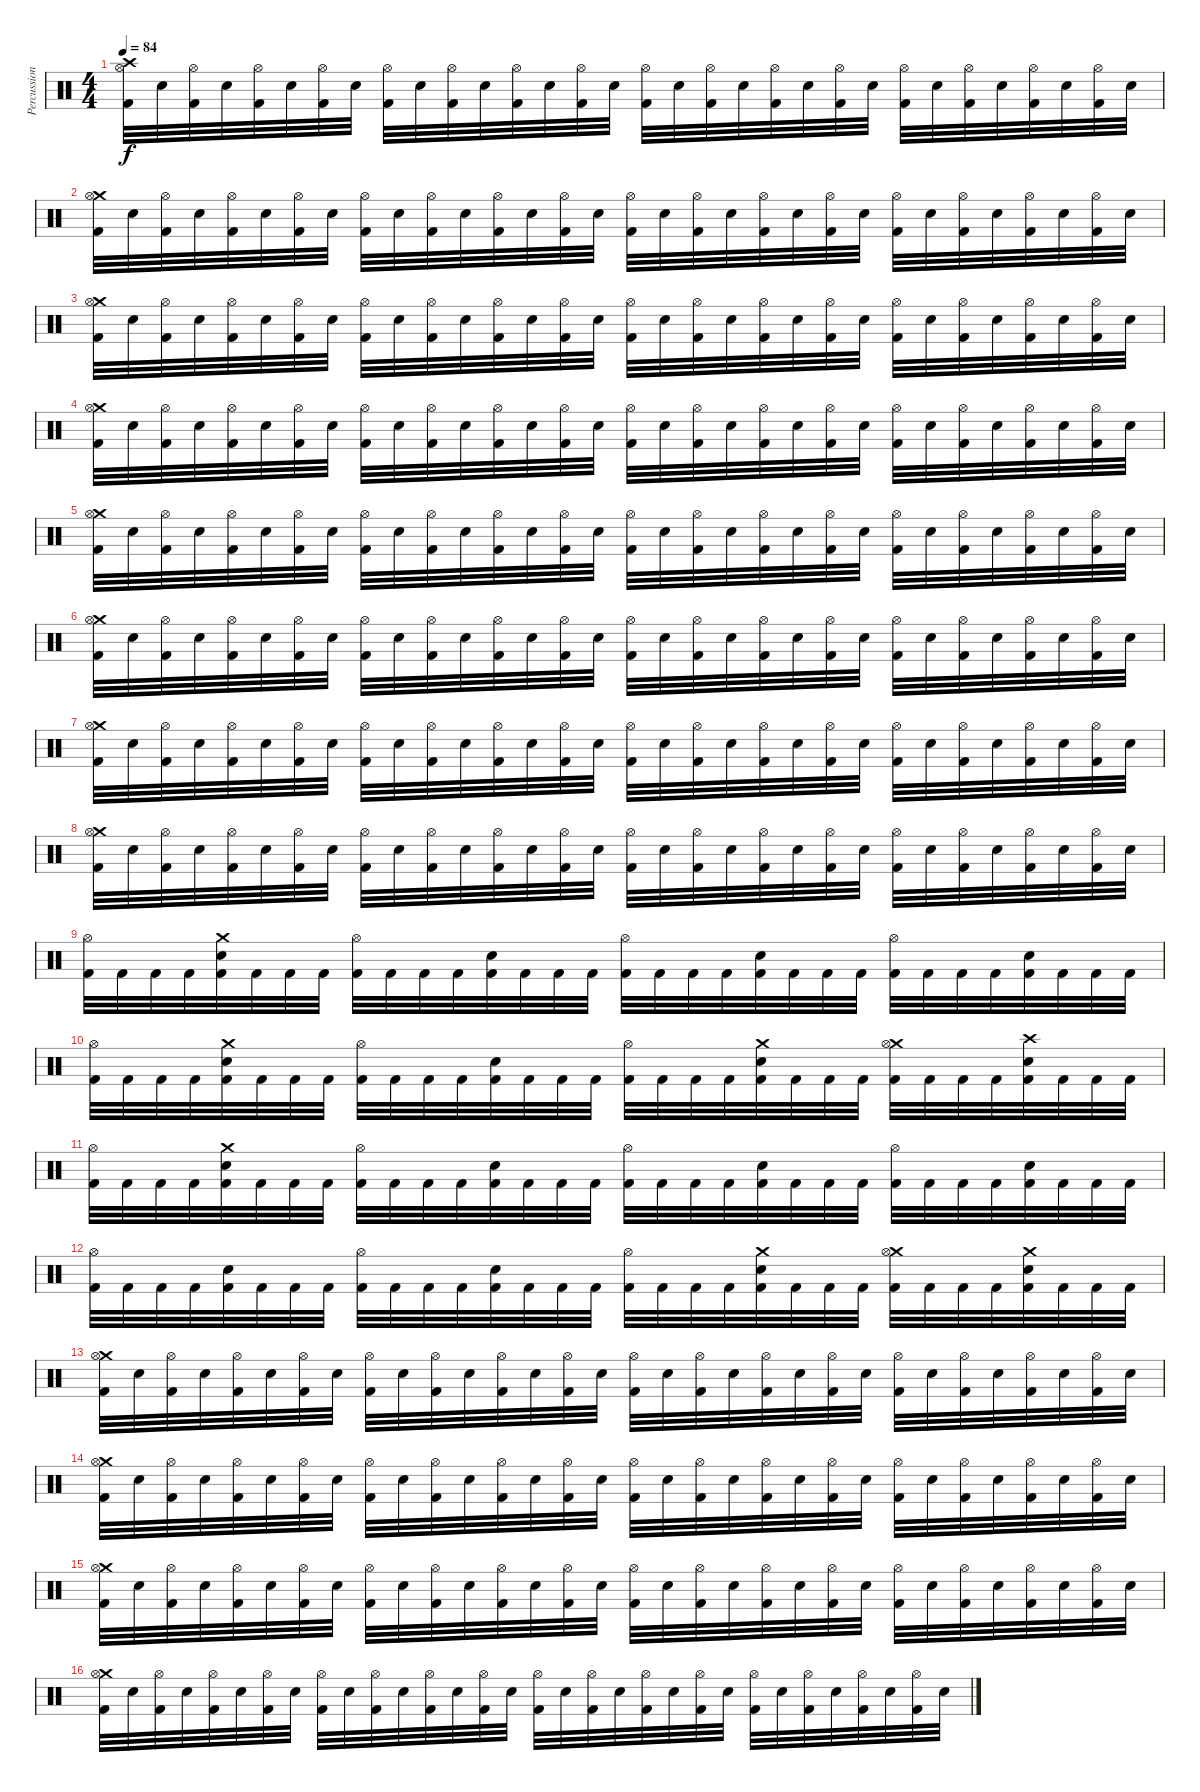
\track ("Percussion" "Percussion") {instrument percussion}
\staff {score}
\articulation defaults
\ts (4 4)
\tempo 84
\clef neutral
\ks c
("Crash high (hit)" "Hi-Hat (open)" "Kick (hit) 2").32{dy f} "Snare (hit) 2".32 ("Hi-Hat (open)" "Kick (hit) 2").32 "Snare (hit) 2".32 ("Hi-Hat (open)" "Kick (hit) 2").32 "Snare (hit) 2".32 ("Hi-Hat (open)" "Kick (hit) 2").32 "Snare (hit) 2".32 ("Hi-Hat (open)" "Kick (hit) 2").32 "Snare (hit) 2".32 ("Hi-Hat (open)" "Kick (hit) 2").32 "Snare (hit) 2".32 ("Hi-Hat (open)" "Kick (hit) 2").32 "Snare (hit) 2".32 ("Hi-Hat (open)" "Kick (hit) 2").32 "Snare (hit) 2".32 ("Hi-Hat (open)" "Kick (hit) 2").32 "Snare (hit) 2".32 ("Hi-Hat (open)" "Kick (hit) 2").32 "Snare (hit) 2".32 ("Hi-Hat (open)" "Kick (hit) 2").32 "Snare (hit) 2".32 ("Hi-Hat (open)" "Kick (hit) 2").32 "Snare (hit) 2".32 ("Hi-Hat (open)" "Kick (hit) 2").32 "Snare (hit) 2".32 ("Hi-Hat (open)" "Kick (hit) 2").32 "Snare (hit) 2".32 ("Hi-Hat (open)" "Kick (hit) 2").32 "Snare (hit) 2".32 ("Hi-Hat (open)" "Kick (hit) 2").32 "Snare (hit) 2".32 |
("Crash medium (hit)" "Hi-Hat (open)" "Kick (hit) 2").32 "Snare (hit) 2".32 ("Hi-Hat (open)" "Kick (hit) 2").32 "Snare (hit) 2".32 ("Hi-Hat (open)" "Kick (hit) 2").32 "Snare (hit) 2".32 ("Hi-Hat (open)" "Kick (hit) 2").32 "Snare (hit) 2".32 ("Hi-Hat (open)" "Kick (hit) 2").32 "Snare (hit) 2".32 ("Hi-Hat (open)" "Kick (hit) 2").32 "Snare (hit) 2".32 ("Hi-Hat (open)" "Kick (hit) 2").32 "Snare (hit) 2".32 ("Hi-Hat (open)" "Kick (hit) 2").32 "Snare (hit) 2".32 ("Hi-Hat (open)" "Kick (hit) 2").32 "Snare (hit) 2".32 ("Hi-Hat (open)" "Kick (hit) 2").32 "Snare (hit) 2".32 ("Hi-Hat (open)" "Kick (hit) 2").32 "Snare (hit) 2".32 ("Hi-Hat (open)" "Kick (hit) 2").32 "Snare (hit) 2".32 ("Hi-Hat (open)" "Kick (hit) 2").32 "Snare (hit) 2".32 ("Hi-Hat (open)" "Kick (hit) 2").32 "Snare (hit) 2".32 ("Hi-Hat (open)" "Kick (hit) 2").32 "Snare (hit) 2".32 ("Hi-Hat (open)" "Kick (hit) 2").32 "Snare (hit) 2".32 |
("Crash medium (hit)" "Hi-Hat (open)" "Kick (hit) 2").32 "Snare (hit) 2".32 ("Hi-Hat (open)" "Kick (hit) 2").32 "Snare (hit) 2".32 ("Hi-Hat (open)" "Kick (hit) 2").32 "Snare (hit) 2".32 ("Hi-Hat (open)" "Kick (hit) 2").32 "Snare (hit) 2".32 ("Hi-Hat (open)" "Kick (hit) 2").32 "Snare (hit) 2".32 ("Hi-Hat (open)" "Kick (hit) 2").32 "Snare (hit) 2".32 ("Hi-Hat (open)" "Kick (hit) 2").32 "Snare (hit) 2".32 ("Hi-Hat (open)" "Kick (hit) 2").32 "Snare (hit) 2".32 ("Hi-Hat (open)" "Kick (hit) 2").32 "Snare (hit) 2".32 ("Hi-Hat (open)" "Kick (hit) 2").32 "Snare (hit) 2".32 ("Hi-Hat (open)" "Kick (hit) 2").32 "Snare (hit) 2".32 ("Hi-Hat (open)" "Kick (hit) 2").32 "Snare (hit) 2".32 ("Hi-Hat (open)" "Kick (hit) 2").32 "Snare (hit) 2".32 ("Hi-Hat (open)" "Kick (hit) 2").32 "Snare (hit) 2".32 ("Hi-Hat (open)" "Kick (hit) 2").32 "Snare (hit) 2".32 ("Hi-Hat (open)" "Kick (hit) 2").32 "Snare (hit) 2".32 |
("Crash medium (hit)" "Hi-Hat (open)" "Kick (hit) 2").32 "Snare (hit) 2".32 ("Hi-Hat (open)" "Kick (hit) 2").32 "Snare (hit) 2".32 ("Hi-Hat (open)" "Kick (hit) 2").32 "Snare (hit) 2".32 ("Hi-Hat (open)" "Kick (hit) 2").32 "Snare (hit) 2".32 ("Hi-Hat (open)" "Kick (hit) 2").32 "Snare (hit) 2".32 ("Hi-Hat (open)" "Kick (hit) 2").32 "Snare (hit) 2".32 ("Hi-Hat (open)" "Kick (hit) 2").32 "Snare (hit) 2".32 ("Hi-Hat (open)" "Kick (hit) 2").32 "Snare (hit) 2".32 ("Hi-Hat (open)" "Kick (hit) 2").32 "Snare (hit) 2".32 ("Hi-Hat (open)" "Kick (hit) 2").32 "Snare (hit) 2".32 ("Hi-Hat (open)" "Kick (hit) 2").32 "Snare (hit) 2".32 ("Hi-Hat (open)" "Kick (hit) 2").32 "Snare (hit) 2".32 ("Hi-Hat (open)" "Kick (hit) 2").32 "Snare (hit) 2".32 ("Hi-Hat (open)" "Kick (hit) 2").32 "Snare (hit) 2".32 ("Hi-Hat (open)" "Kick (hit) 2").32 "Snare (hit) 2".32 ("Hi-Hat (open)" "Kick (hit) 2").32 "Snare (hit) 2".32 |
("Crash medium (hit)" "Hi-Hat (open)" "Kick (hit) 2").32 "Snare (hit) 2".32 ("Hi-Hat (open)" "Kick (hit) 2").32 "Snare (hit) 2".32 ("Hi-Hat (open)" "Kick (hit) 2").32 "Snare (hit) 2".32 ("Hi-Hat (open)" "Kick (hit) 2").32 "Snare (hit) 2".32 ("Hi-Hat (open)" "Kick (hit) 2").32 "Snare (hit) 2".32 ("Hi-Hat (open)" "Kick (hit) 2").32 "Snare (hit) 2".32 ("Hi-Hat (open)" "Kick (hit) 2").32 "Snare (hit) 2".32 ("Hi-Hat (open)" "Kick (hit) 2").32 "Snare (hit) 2".32 ("Hi-Hat (open)" "Kick (hit) 2").32 "Snare (hit) 2".32 ("Hi-Hat (open)" "Kick (hit) 2").32 "Snare (hit) 2".32 ("Hi-Hat (open)" "Kick (hit) 2").32 "Snare (hit) 2".32 ("Hi-Hat (open)" "Kick (hit) 2").32 "Snare (hit) 2".32 ("Hi-Hat (open)" "Kick (hit) 2").32 "Snare (hit) 2".32 ("Hi-Hat (open)" "Kick (hit) 2").32 "Snare (hit) 2".32 ("Hi-Hat (open)" "Kick (hit) 2").32 "Snare (hit) 2".32 ("Hi-Hat (open)" "Kick (hit) 2").32 "Snare (hit) 2".32 |
("Crash medium (hit)" "Hi-Hat (open)" "Kick (hit) 2").32 "Snare (hit) 2".32 ("Hi-Hat (open)" "Kick (hit) 2").32 "Snare (hit) 2".32 ("Hi-Hat (open)" "Kick (hit) 2").32 "Snare (hit) 2".32 ("Hi-Hat (open)" "Kick (hit) 2").32 "Snare (hit) 2".32 ("Hi-Hat (open)" "Kick (hit) 2").32 "Snare (hit) 2".32 ("Hi-Hat (open)" "Kick (hit) 2").32 "Snare (hit) 2".32 ("Hi-Hat (open)" "Kick (hit) 2").32 "Snare (hit) 2".32 ("Hi-Hat (open)" "Kick (hit) 2").32 "Snare (hit) 2".32 ("Hi-Hat (open)" "Kick (hit) 2").32 "Snare (hit) 2".32 ("Hi-Hat (open)" "Kick (hit) 2").32 "Snare (hit) 2".32 ("Hi-Hat (open)" "Kick (hit) 2").32 "Snare (hit) 2".32 ("Hi-Hat (open)" "Kick (hit) 2").32 "Snare (hit) 2".32 ("Hi-Hat (open)" "Kick (hit) 2").32 "Snare (hit) 2".32 ("Hi-Hat (open)" "Kick (hit) 2").32 "Snare (hit) 2".32 ("Hi-Hat (open)" "Kick (hit) 2").32 "Snare (hit) 2".32 ("Hi-Hat (open)" "Kick (hit) 2").32 "Snare (hit) 2".32 |
("Crash medium (hit)" "Hi-Hat (open)" "Kick (hit) 2").32 "Snare (hit) 2".32 ("Hi-Hat (open)" "Kick (hit) 2").32 "Snare (hit) 2".32 ("Hi-Hat (open)" "Kick (hit) 2").32 "Snare (hit) 2".32 ("Hi-Hat (open)" "Kick (hit) 2").32 "Snare (hit) 2".32 ("Hi-Hat (open)" "Kick (hit) 2").32 "Snare (hit) 2".32 ("Hi-Hat (open)" "Kick (hit) 2").32 "Snare (hit) 2".32 ("Hi-Hat (open)" "Kick (hit) 2").32 "Snare (hit) 2".32 ("Hi-Hat (open)" "Kick (hit) 2").32 "Snare (hit) 2".32 ("Hi-Hat (open)" "Kick (hit) 2").32 "Snare (hit) 2".32 ("Hi-Hat (open)" "Kick (hit) 2").32 "Snare (hit) 2".32 ("Hi-Hat (open)" "Kick (hit) 2").32 "Snare (hit) 2".32 ("Hi-Hat (open)" "Kick (hit) 2").32 "Snare (hit) 2".32 ("Hi-Hat (open)" "Kick (hit) 2").32 "Snare (hit) 2".32 ("Hi-Hat (open)" "Kick (hit) 2").32 "Snare (hit) 2".32 ("Hi-Hat (open)" "Kick (hit) 2").32 "Snare (hit) 2".32 ("Hi-Hat (open)" "Kick (hit) 2").32 "Snare (hit) 2".32 |
("Crash medium (hit)" "Hi-Hat (open)" "Kick (hit) 2").32 "Snare (hit) 2".32 ("Hi-Hat (open)" "Kick (hit) 2").32 "Snare (hit) 2".32 ("Hi-Hat (open)" "Kick (hit) 2").32 "Snare (hit) 2".32 ("Hi-Hat (open)" "Kick (hit) 2").32 "Snare (hit) 2".32 ("Hi-Hat (open)" "Kick (hit) 2").32 "Snare (hit) 2".32 ("Hi-Hat (open)" "Kick (hit) 2").32 "Snare (hit) 2".32 ("Hi-Hat (open)" "Kick (hit) 2").32 "Snare (hit) 2".32 ("Hi-Hat (open)" "Kick (hit) 2").32 "Snare (hit) 2".32 ("Hi-Hat (open)" "Kick (hit) 2").32 "Snare (hit) 2".32 ("Hi-Hat (open)" "Kick (hit) 2").32 "Snare (hit) 2".32 ("Hi-Hat (open)" "Kick (hit) 2").32 "Snare (hit) 2".32 ("Hi-Hat (open)" "Kick (hit) 2").32 "Snare (hit) 2".32 ("Hi-Hat (open)" "Kick (hit) 2").32 "Snare (hit) 2".32 ("Hi-Hat (open)" "Kick (hit) 2").32 "Snare (hit) 2".32 ("Hi-Hat (open)" "Kick (hit) 2").32 "Snare (hit) 2".32 ("Hi-Hat (open)" "Kick (hit) 2").32 "Snare (hit) 2".32 |
("Hi-Hat (open)" "Kick (hit) 2").32 "Kick (hit) 2".32 "Kick (hit) 2".32 "Kick (hit) 2".32 ("Crash medium (hit)" "Snare (hit) 2" "Kick (hit) 2").32 "Kick (hit) 2".32 "Kick (hit) 2".32 "Kick (hit) 2".32 ("Hi-Hat (open)" "Kick (hit) 2").32 "Kick (hit) 2".32 "Kick (hit) 2".32 "Kick (hit) 2".32 ("Snare (hit) 2" "Kick (hit) 2").32 "Kick (hit) 2".32 "Kick (hit) 2".32 "Kick (hit) 2".32 ("Hi-Hat (open)" "Kick (hit) 2").32 "Kick (hit) 2".32 "Kick (hit) 2".32 "Kick (hit) 2".32 ("Snare (hit) 2" "Kick (hit) 2").32 "Kick (hit) 2".32 "Kick (hit) 2".32 "Kick (hit) 2".32 ("Hi-Hat (open)" "Kick (hit) 2").32 "Kick (hit) 2".32 "Kick (hit) 2".32 "Kick (hit) 2".32 ("Snare (hit) 2" "Kick (hit) 2").32 "Kick (hit) 2".32 "Kick (hit) 2".32 "Kick (hit) 2".32 |
("Hi-Hat (open)" "Kick (hit) 2").32 "Kick (hit) 2".32 "Kick (hit) 2".32 "Kick (hit) 2".32 ("Crash medium (hit)" "Snare (hit) 2" "Kick (hit) 2").32 "Kick (hit) 2".32 "Kick (hit) 2".32 "Kick (hit) 2".32 ("Hi-Hat (open)" "Kick (hit) 2").32 "Kick (hit) 2".32 "Kick (hit) 2".32 "Kick (hit) 2".32 ("Snare (hit) 2" "Kick (hit) 2").32 "Kick (hit) 2".32 "Kick (hit) 2".32 "Kick (hit) 2".32 ("Hi-Hat (open)" "Kick (hit) 2").32 "Kick (hit) 2".32 "Kick (hit) 2".32 "Kick (hit) 2".32 ("Crash medium (hit)" "Snare (hit) 2" "Kick (hit) 2").32 "Kick (hit) 2".32 "Kick (hit) 2".32 "Kick (hit) 2".32 ("Crash medium (hit)" "Hi-Hat (open)" "Kick (hit) 2").32 "Kick (hit) 2".32 "Kick (hit) 2".32 "Kick (hit) 2".32 ("Crash high (hit)" "Snare (hit) 2" "Kick (hit) 2").32 "Kick (hit) 2".32 "Kick (hit) 2".32 "Kick (hit) 2".32 |
("Hi-Hat (open)" "Kick (hit) 2").32 "Kick (hit) 2".32 "Kick (hit) 2".32 "Kick (hit) 2".32 ("Crash medium (hit)" "Snare (hit) 2" "Kick (hit) 2").32 "Kick (hit) 2".32 "Kick (hit) 2".32 "Kick (hit) 2".32 ("Hi-Hat (open)" "Kick (hit) 2").32 "Kick (hit) 2".32 "Kick (hit) 2".32 "Kick (hit) 2".32 ("Snare (hit) 2" "Kick (hit) 2").32 "Kick (hit) 2".32 "Kick (hit) 2".32 "Kick (hit) 2".32 ("Hi-Hat (open)" "Kick (hit) 2").32 "Kick (hit) 2".32 "Kick (hit) 2".32 "Kick (hit) 2".32 ("Snare (hit) 2" "Kick (hit) 2").32 "Kick (hit) 2".32 "Kick (hit) 2".32 "Kick (hit) 2".32 ("Hi-Hat (open)" "Kick (hit) 2").32 "Kick (hit) 2".32 "Kick (hit) 2".32 "Kick (hit) 2".32 ("Snare (hit) 2" "Kick (hit) 2").32 "Kick (hit) 2".32 "Kick (hit) 2".32 "Kick (hit) 2".32 |
("Hi-Hat (open)" "Kick (hit) 2").32 "Kick (hit) 2".32 "Kick (hit) 2".32 "Kick (hit) 2".32 ("Snare (hit) 2" "Kick (hit) 2").32 "Kick (hit) 2".32 "Kick (hit) 2".32 "Kick (hit) 2".32 ("Hi-Hat (open)" "Kick (hit) 2").32 "Kick (hit) 2".32 "Kick (hit) 2".32 "Kick (hit) 2".32 ("Snare (hit) 2" "Kick (hit) 2").32 "Kick (hit) 2".32 "Kick (hit) 2".32 "Kick (hit) 2".32 ("Hi-Hat (open)" "Kick (hit) 2").32 "Kick (hit) 2".32 "Kick (hit) 2".32 "Kick (hit) 2".32 ("Crash medium (hit)" "Snare (hit) 2" "Kick (hit) 2").32 "Kick (hit) 2".32 "Kick (hit) 2".32 "Kick (hit) 2".32 ("Crash medium (hit)" "Hi-Hat (open)" "Kick (hit) 2").32 "Kick (hit) 2".32 "Kick (hit) 2".32 "Kick (hit) 2".32 ("Crash medium (hit)" "Snare (hit) 2" "Kick (hit) 2").32 "Kick (hit) 2".32 "Kick (hit) 2".32 "Kick (hit) 2".32 |
("Crash medium (hit)" "Hi-Hat (open)" "Kick (hit) 2").32 "Snare (hit) 2".32 ("Hi-Hat (open)" "Kick (hit) 2").32 "Snare (hit) 2".32 ("Hi-Hat (open)" "Kick (hit) 2").32 "Snare (hit) 2".32 ("Hi-Hat (open)" "Kick (hit) 2").32 "Snare (hit) 2".32 ("Hi-Hat (open)" "Kick (hit) 2").32 "Snare (hit) 2".32 ("Hi-Hat (open)" "Kick (hit) 2").32 "Snare (hit) 2".32 ("Hi-Hat (open)" "Kick (hit) 2").32 "Snare (hit) 2".32 ("Hi-Hat (open)" "Kick (hit) 2").32 "Snare (hit) 2".32 ("Hi-Hat (open)" "Kick (hit) 2").32 "Snare (hit) 2".32 ("Hi-Hat (open)" "Kick (hit) 2").32 "Snare (hit) 2".32 ("Hi-Hat (open)" "Kick (hit) 2").32 "Snare (hit) 2".32 ("Hi-Hat (open)" "Kick (hit) 2").32 "Snare (hit) 2".32 ("Hi-Hat (open)" "Kick (hit) 2").32 "Snare (hit) 2".32 ("Hi-Hat (open)" "Kick (hit) 2").32 "Snare (hit) 2".32 ("Hi-Hat (open)" "Kick (hit) 2").32 "Snare (hit) 2".32 ("Hi-Hat (open)" "Kick (hit) 2").32 "Snare (hit) 2".32 |
("Crash medium (hit)" "Hi-Hat (open)" "Kick (hit) 2").32 "Snare (hit) 2".32 ("Hi-Hat (open)" "Kick (hit) 2").32 "Snare (hit) 2".32 ("Hi-Hat (open)" "Kick (hit) 2").32 "Snare (hit) 2".32 ("Hi-Hat (open)" "Kick (hit) 2").32 "Snare (hit) 2".32 ("Hi-Hat (open)" "Kick (hit) 2").32 "Snare (hit) 2".32 ("Hi-Hat (open)" "Kick (hit) 2").32 "Snare (hit) 2".32 ("Hi-Hat (open)" "Kick (hit) 2").32 "Snare (hit) 2".32 ("Hi-Hat (open)" "Kick (hit) 2").32 "Snare (hit) 2".32 ("Hi-Hat (open)" "Kick (hit) 2").32 "Snare (hit) 2".32 ("Hi-Hat (open)" "Kick (hit) 2").32 "Snare (hit) 2".32 ("Hi-Hat (open)" "Kick (hit) 2").32 "Snare (hit) 2".32 ("Hi-Hat (open)" "Kick (hit) 2").32 "Snare (hit) 2".32 ("Hi-Hat (open)" "Kick (hit) 2").32 "Snare (hit) 2".32 ("Hi-Hat (open)" "Kick (hit) 2").32 "Snare (hit) 2".32 ("Hi-Hat (open)" "Kick (hit) 2").32 "Snare (hit) 2".32 ("Hi-Hat (open)" "Kick (hit) 2").32 "Snare (hit) 2".32 |
("Crash medium (hit)" "Hi-Hat (open)" "Kick (hit) 2").32 "Snare (hit) 2".32 ("Hi-Hat (open)" "Kick (hit) 2").32 "Snare (hit) 2".32 ("Hi-Hat (open)" "Kick (hit) 2").32 "Snare (hit) 2".32 ("Hi-Hat (open)" "Kick (hit) 2").32 "Snare (hit) 2".32 ("Hi-Hat (open)" "Kick (hit) 2").32 "Snare (hit) 2".32 ("Hi-Hat (open)" "Kick (hit) 2").32 "Snare (hit) 2".32 ("Hi-Hat (open)" "Kick (hit) 2").32 "Snare (hit) 2".32 ("Hi-Hat (open)" "Kick (hit) 2").32 "Snare (hit) 2".32 ("Hi-Hat (open)" "Kick (hit) 2").32 "Snare (hit) 2".32 ("Hi-Hat (open)" "Kick (hit) 2").32 "Snare (hit) 2".32 ("Hi-Hat (open)" "Kick (hit) 2").32 "Snare (hit) 2".32 ("Hi-Hat (open)" "Kick (hit) 2").32 "Snare (hit) 2".32 ("Hi-Hat (open)" "Kick (hit) 2").32 "Snare (hit) 2".32 ("Hi-Hat (open)" "Kick (hit) 2").32 "Snare (hit) 2".32 ("Hi-Hat (open)" "Kick (hit) 2").32 "Snare (hit) 2".32 ("Hi-Hat (open)" "Kick (hit) 2").32 "Snare (hit) 2".32 |
("Crash medium (hit)" "Hi-Hat (open)" "Kick (hit) 2").32 "Snare (hit) 2".32 ("Hi-Hat (open)" "Kick (hit) 2").32 "Snare (hit) 2".32 ("Hi-Hat (open)" "Kick (hit) 2").32 "Snare (hit) 2".32 ("Hi-Hat (open)" "Kick (hit) 2").32 "Snare (hit) 2".32 ("Hi-Hat (open)" "Kick (hit) 2").32 "Snare (hit) 2".32 ("Hi-Hat (open)" "Kick (hit) 2").32 "Snare (hit) 2".32 ("Hi-Hat (open)" "Kick (hit) 2").32 "Snare (hit) 2".32 ("Hi-Hat (open)" "Kick (hit) 2").32 "Snare (hit) 2".32 ("Hi-Hat (open)" "Kick (hit) 2").32 "Snare (hit) 2".32 ("Hi-Hat (open)" "Kick (hit) 2").32 "Snare (hit) 2".32 ("Hi-Hat (open)" "Kick (hit) 2").32 "Snare (hit) 2".32 ("Hi-Hat (open)" "Kick (hit) 2").32 "Snare (hit) 2".32 ("Hi-Hat (open)" "Kick (hit) 2").32 "Snare (hit) 2".32 ("Hi-Hat (open)" "Kick (hit) 2").32 "Snare (hit) 2".32 ("Hi-Hat (open)" "Kick (hit) 2").32 "Snare (hit) 2".32 ("Hi-Hat (open)" "Kick (hit) 2").32 "Snare (hit) 2".32
